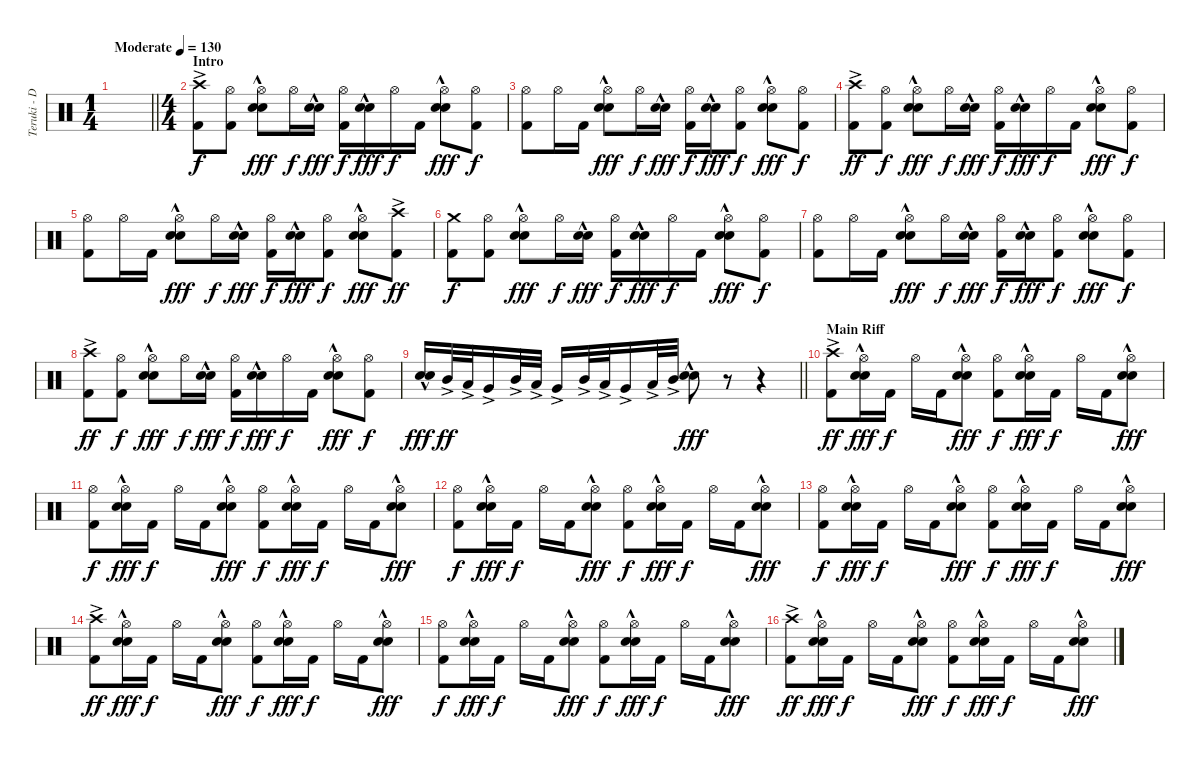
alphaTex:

\track ("Teruki - Drums" "Teruki - D") {instrument percussion}
\staff {score}
\articulation defaults
\ts (1 4)
\tempo (130 "Moderate")
\clef neutral
\barLineRight lightlight
\ks c
|
\ts (4 4)
\section ("" "Intro")
("Crash high (hit)"{ac} "Kick (hit) 2").8 ("Hi-Hat (open)" "Kick (hit) 2").8{dy f} ("Hi-Hat (open)" "Electric Snare (hit)"{hac} "Snare (hit) 2").8{dy fff} "Hi-Hat (open)".16{dy f} ("Electric Snare (hit)"{hac} "Snare (hit) 2").16{dy fff} ("Hi-Hat (open)" "Kick (hit) 2").16{dy f} ("Electric Snare (hit)"{hac} "Snare (hit) 2").16{dy fff} "Hi-Hat (open)".16{dy f} "Kick (hit) 2".16 ("Hi-Hat (open)" "Electric Snare (hit)"{hac} "Snare (hit) 2").8{dy fff} ("Hi-Hat (open)" "Kick (hit) 2").8{dy f} |
("Hi-Hat (open)" "Kick (hit) 2").8 "Hi-Hat (open)".16 "Kick (hit) 2".16 ("Hi-Hat (open)" "Electric Snare (hit)"{hac} "Snare (hit) 2").8{dy fff} "Hi-Hat (open)".16{dy f} ("Electric Snare (hit)"{hac} "Snare (hit) 2").16{dy fff} ("Hi-Hat (open)" "Kick (hit) 2").16{dy f} ("Electric Snare (hit)"{hac} "Snare (hit) 2").16{dy fff} ("Hi-Hat (open)" "Kick (hit) 2").8{dy f} ("Hi-Hat (open)" "Electric Snare (hit)"{hac} "Snare (hit) 2").8{dy fff} ("Hi-Hat (open)" "Kick (hit) 2").8{dy f} |
("Crash high (hit)"{ac} "Kick (hit) 2").8{dy ff} ("Hi-Hat (open)" "Kick (hit) 2").8{dy f} ("Hi-Hat (open)" "Electric Snare (hit)"{hac} "Snare (hit) 2").8{dy fff} "Hi-Hat (open)".16{dy f} ("Electric Snare (hit)"{hac} "Snare (hit) 2").16{dy fff} ("Hi-Hat (open)" "Kick (hit) 2").16{dy f} ("Electric Snare (hit)"{hac} "Snare (hit) 2").16{dy fff} "Hi-Hat (open)".16{dy f} "Kick (hit) 2".16 ("Hi-Hat (open)" "Electric Snare (hit)"{hac} "Snare (hit) 2").8{dy fff} ("Hi-Hat (open)" "Kick (hit) 2").8{dy f} |
("Hi-Hat (open)" "Kick (hit) 2").8 "Hi-Hat (open)".16 "Kick (hit) 2".16 ("Hi-Hat (open)" "Electric Snare (hit)"{hac} "Snare (hit) 2").8{dy fff} "Hi-Hat (open)".16{dy f} ("Electric Snare (hit)"{hac} "Snare (hit) 2").16{dy fff} ("Hi-Hat (open)" "Kick (hit) 2").16{dy f} ("Electric Snare (hit)"{hac} "Snare (hit) 2").16{dy fff} ("Hi-Hat (open)" "Kick (hit) 2").8{dy f} ("Hi-Hat (open)" "Electric Snare (hit)"{hac} "Snare (hit) 2").8{dy fff} ("Crash high (hit)"{ac} "Kick (hit) 2").8{dy ff} |
("Crash medium (hit)" "Kick (hit) 2").8{dy f} ("Hi-Hat (open)" "Kick (hit) 2").8 ("Hi-Hat (open)" "Electric Snare (hit)"{hac} "Snare (hit) 2").8{dy fff} "Hi-Hat (open)".16{dy f} ("Electric Snare (hit)"{hac} "Snare (hit) 2").16{dy fff} ("Hi-Hat (open)" "Kick (hit) 2").16{dy f} ("Electric Snare (hit)"{hac} "Snare (hit) 2").16{dy fff} "Hi-Hat (open)".16{dy f} "Kick (hit) 2".16 ("Hi-Hat (open)" "Electric Snare (hit)"{hac} "Snare (hit) 2").8{dy fff} ("Hi-Hat (open)" "Kick (hit) 2").8{dy f} |
("Hi-Hat (open)" "Kick (hit) 2").8 "Hi-Hat (open)".16 "Kick (hit) 2".16 ("Hi-Hat (open)" "Electric Snare (hit)"{hac} "Snare (hit) 2").8{dy fff} "Hi-Hat (open)".16{dy f} ("Electric Snare (hit)"{hac} "Snare (hit) 2").16{dy fff} ("Hi-Hat (open)" "Kick (hit) 2").16{dy f} ("Electric Snare (hit)"{hac} "Snare (hit) 2").16{dy fff} ("Hi-Hat (open)" "Kick (hit) 2").8{dy f} ("Hi-Hat (open)" "Electric Snare (hit)"{hac} "Snare (hit) 2").8{dy fff} ("Hi-Hat (open)" "Kick (hit) 2").8{dy f} |
("Crash high (hit)"{ac} "Kick (hit) 2").8{dy ff} ("Hi-Hat (open)" "Kick (hit) 2").8{dy f} ("Hi-Hat (open)" "Electric Snare (hit)"{hac} "Snare (hit) 2").8{dy fff} "Hi-Hat (open)".16{dy f} ("Electric Snare (hit)"{hac} "Snare (hit) 2").16{dy fff} ("Hi-Hat (open)" "Kick (hit) 2").16{dy f} ("Electric Snare (hit)"{hac} "Snare (hit) 2").16{dy fff} "Hi-Hat (open)".16{dy f} "Kick (hit) 2".16 ("Hi-Hat (open)" "Electric Snare (hit)"{hac} "Snare (hit) 2").8{dy fff} ("Hi-Hat (open)" "Kick (hit) 2").8{dy f} |
\barLineRight lightlight
("Electric Snare (hit)"{hac} "Snare (hit) 2").16{dy fff} "Mid Tom (hit)"{ac}.32{dy ff} "Low Tom (hit)"{ac}.32 "Very Low Tom (hit)"{ac}.16 "Mid Tom (hit)"{ac}.32 "Low Tom (hit)"{ac}.32 "Very Low Tom (hit)"{ac}.16 "Mid Tom (hit)"{ac}.32 "Low Tom (hit)"{ac}.32 "Very Low Tom (hit)"{ac}.16 "Low Tom (hit)"{ac}.32 "Mid Tom (hit)"{ac}.32 ("Electric Snare (hit)"{hac} "Snare (hit) 2").8{dy fff} r.8 r.4 |
\section ("" "Main Riff")
("Crash high (hit)"{ac} "Kick (hit) 2").8{dy ff} ("Hi-Hat (open)" "Electric Snare (hit)"{hac} "Snare (hit) 2").16{dy fff} "Kick (hit) 2".16{dy f} "Hi-Hat (open)".16 "Kick (hit) 2".16 ("Hi-Hat (open)" "Electric Snare (hit)"{hac} "Snare (hit) 2").8{dy fff} ("Hi-Hat (open)" "Kick (hit) 2").8{dy f} ("Hi-Hat (open)" "Electric Snare (hit)"{hac} "Snare (hit) 2").16{dy fff} "Kick (hit) 2".16{dy f} "Hi-Hat (open)".16 "Kick (hit) 2".16 ("Hi-Hat (open)" "Electric Snare (hit)"{hac} "Snare (hit) 2").8{dy fff} |
("Hi-Hat (open)" "Kick (hit) 2").8{dy f} ("Hi-Hat (open)" "Electric Snare (hit)"{hac} "Snare (hit) 2").16{dy fff} "Kick (hit) 2".16{dy f} "Hi-Hat (open)".16 "Kick (hit) 2".16 ("Hi-Hat (open)" "Electric Snare (hit)"{hac} "Snare (hit) 2").8{dy fff} ("Hi-Hat (open)" "Kick (hit) 2").8{dy f} ("Hi-Hat (open)" "Electric Snare (hit)"{hac} "Snare (hit) 2").16{dy fff} "Kick (hit) 2".16{dy f} "Hi-Hat (open)".16 "Kick (hit) 2".16 ("Hi-Hat (open)" "Electric Snare (hit)"{hac} "Snare (hit) 2").8{dy fff} |
("Hi-Hat (open)" "Kick (hit) 2").8{dy f} ("Hi-Hat (open)" "Electric Snare (hit)"{hac} "Snare (hit) 2").16{dy fff} "Kick (hit) 2".16{dy f} "Hi-Hat (open)".16 "Kick (hit) 2".16 ("Hi-Hat (open)" "Electric Snare (hit)"{hac} "Snare (hit) 2").8{dy fff} ("Hi-Hat (open)" "Kick (hit) 2").8{dy f} ("Hi-Hat (open)" "Electric Snare (hit)"{hac} "Snare (hit) 2").16{dy fff} "Kick (hit) 2".16{dy f} "Hi-Hat (open)".16 "Kick (hit) 2".16 ("Hi-Hat (open)" "Electric Snare (hit)"{hac} "Snare (hit) 2").8{dy fff} |
("Hi-Hat (open)" "Kick (hit) 2").8{dy f} ("Hi-Hat (open)" "Electric Snare (hit)"{hac} "Snare (hit) 2").16{dy fff} "Kick (hit) 2".16{dy f} "Hi-Hat (open)".16 "Kick (hit) 2".16 ("Hi-Hat (open)" "Electric Snare (hit)"{hac} "Snare (hit) 2").8{dy fff} ("Hi-Hat (open)" "Kick (hit) 2").8{dy f} ("Hi-Hat (open)" "Electric Snare (hit)"{hac} "Snare (hit) 2").16{dy fff} "Kick (hit) 2".16{dy f} "Hi-Hat (open)".16 "Kick (hit) 2".16 ("Hi-Hat (open)" "Electric Snare (hit)"{hac} "Snare (hit) 2").8{dy fff} |
("Crash high (hit)"{ac} "Kick (hit) 2").8{dy ff} ("Hi-Hat (open)" "Electric Snare (hit)"{hac} "Snare (hit) 2").16{dy fff} "Kick (hit) 2".16{dy f} "Hi-Hat (open)".16 "Kick (hit) 2".16 ("Hi-Hat (open)" "Electric Snare (hit)"{hac} "Snare (hit) 2").8{dy fff} ("Hi-Hat (open)" "Kick (hit) 2").8{dy f} ("Hi-Hat (open)" "Electric Snare (hit)"{hac} "Snare (hit) 2").16{dy fff} "Kick (hit) 2".16{dy f} "Hi-Hat (open)".16 "Kick (hit) 2".16 ("Hi-Hat (open)" "Electric Snare (hit)"{hac} "Snare (hit) 2").8{dy fff} |
("Hi-Hat (open)" "Kick (hit) 2").8{dy f} ("Hi-Hat (open)" "Electric Snare (hit)"{hac} "Snare (hit) 2").16{dy fff} "Kick (hit) 2".16{dy f} "Hi-Hat (open)".16 "Kick (hit) 2".16 ("Hi-Hat (open)" "Electric Snare (hit)"{hac} "Snare (hit) 2").8{dy fff} ("Hi-Hat (open)" "Kick (hit) 2").8{dy f} ("Hi-Hat (open)" "Electric Snare (hit)"{hac} "Snare (hit) 2").16{dy fff} "Kick (hit) 2".16{dy f} "Hi-Hat (open)".16 "Kick (hit) 2".16 ("Hi-Hat (open)" "Electric Snare (hit)"{hac} "Snare (hit) 2").8{dy fff} |
("Crash high (hit)"{ac} "Kick (hit) 2").8{dy ff} ("Hi-Hat (open)" "Electric Snare (hit)"{hac} "Snare (hit) 2").16{dy fff} "Kick (hit) 2".16{dy f} "Hi-Hat (open)".16 "Kick (hit) 2".16 ("Hi-Hat (open)" "Electric Snare (hit)"{hac} "Snare (hit) 2").8{dy fff} ("Hi-Hat (open)" "Kick (hit) 2").8{dy f} ("Hi-Hat (open)" "Electric Snare (hit)"{hac} "Snare (hit) 2").16{dy fff} "Kick (hit) 2".16{dy f} "Hi-Hat (open)".16 "Kick (hit) 2".16 ("Hi-Hat (open)" "Electric Snare (hit)"{hac} "Snare (hit) 2").8{dy fff}
